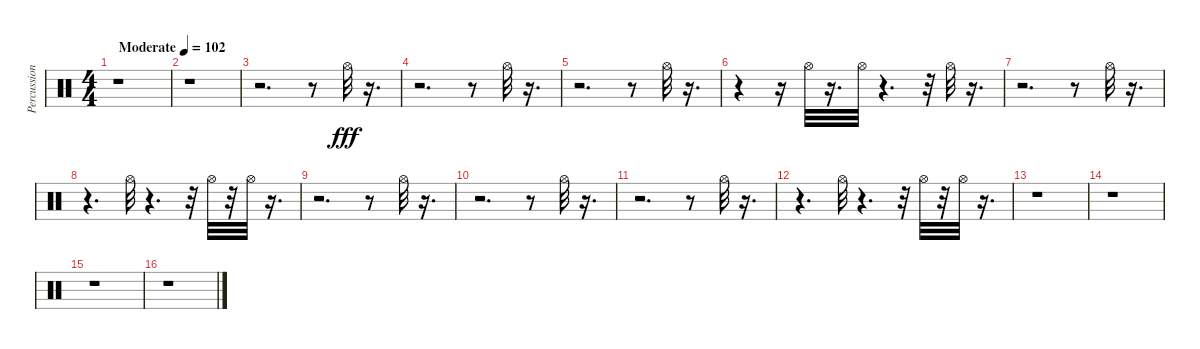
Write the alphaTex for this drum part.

\track ("Percussion" "Percussion") {instrument percussion}
\staff {score}
\articulation defaults
\ts (4 4)
\tempo (102 "Moderate")
\clef neutral
\ks c
r.1{dy fff} |
r.1 |
r.2{d} r.8 "Hi-Hat (open)".32 r.16{d} |
r.2{d} r.8 "Hi-Hat (open)".32 r.16{d} |
r.2{d} r.8 "Hi-Hat (open)".32 r.16{d} |
r.4 r.16 "Hi-Hat (open)".32 r.16{d} "Hi-Hat (open)".32 r.4{d} r.32 "Hi-Hat (open)".32 r.16{d} |
r.2{d} r.8 "Hi-Hat (open)".32 r.16{d} |
r.4{d} "Hi-Hat (open)".32 r.4{d} r.32 "Hi-Hat (open)".32 r.32 "Hi-Hat (open)".32 r.16{d} |
r.2{d} r.8 "Hi-Hat (open)".32 r.16{d} |
r.2{d} r.8 "Hi-Hat (open)".32 r.16{d} |
r.2{d} r.8 "Hi-Hat (open)".32 r.16{d} |
r.4{d} "Hi-Hat (open)".32 r.4{d} r.32 "Hi-Hat (open)".32 r.32 "Hi-Hat (open)".32 r.16{d} |
r.1 |
r.1 |
r.1 |
r.1
